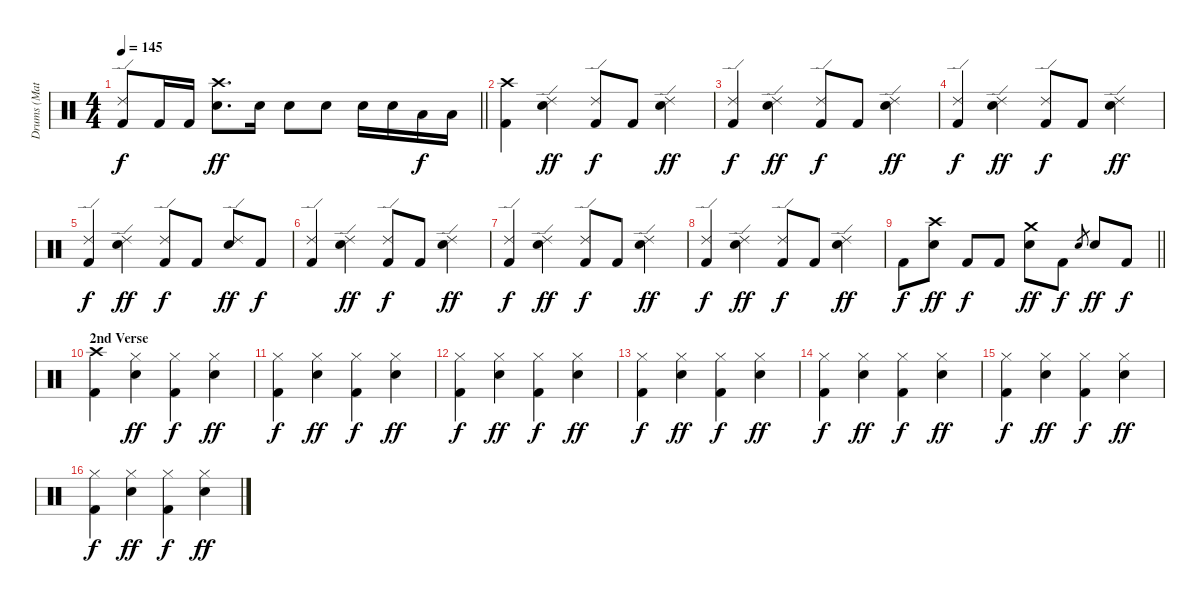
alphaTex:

\track ("Drums (Matt)" "Drums (Mat") {instrument percussion}
\staff {score}
\articulation defaults
\ts (4 4)
\tempo 145
\clef neutral
\barLineRight lightlight
\ks c
("Ride (edge) 2" "Kick (hit) 2").8{dy f} "Kick (hit) 2".16 "Kick (hit) 2".16 ("Crash high (hit)" "Snare (hit) 2").8{d dy ff} "Snare (hit) 2".16 "Snare (hit) 2".8 "Snare (hit) 2".8 "Snare (hit) 2".16 "Snare (hit) 2".16 "Low Tom (hit)".16{dy f} "Low Tom (hit)".16 |
("Crash high (hit)" "Kick (hit) 2").4 ("Ride (edge) 2" "Snare (hit) 2").4{dy ff} ("Ride (edge) 2" "Kick (hit) 2").8{dy f} "Kick (hit) 2".8 ("Ride (edge) 2" "Snare (hit) 2").4{dy ff} |
("Ride (edge) 2" "Kick (hit) 2").4{dy f} ("Ride (edge) 2" "Snare (hit) 2").4{dy ff} ("Ride (edge) 2" "Kick (hit) 2").8{dy f} "Kick (hit) 2".8 ("Ride (edge) 2" "Snare (hit) 2").4{dy ff} |
("Ride (edge) 2" "Kick (hit) 2").4{dy f} ("Ride (edge) 2" "Snare (hit) 2").4{dy ff} ("Ride (edge) 2" "Kick (hit) 2").8{dy f} "Kick (hit) 2".8 ("Ride (edge) 2" "Snare (hit) 2").4{dy ff} |
("Ride (edge) 2" "Kick (hit) 2").4{dy f} ("Ride (edge) 2" "Snare (hit) 2").4{dy ff} ("Ride (edge) 2" "Kick (hit) 2").8{dy f} "Kick (hit) 2".8 ("Ride (edge) 2" "Snare (hit) 2").8{dy ff} "Kick (hit) 2".8{dy f} |
("Ride (edge) 2" "Kick (hit) 2").4 ("Ride (edge) 2" "Snare (hit) 2").4{dy ff} ("Ride (edge) 2" "Kick (hit) 2").8{dy f} "Kick (hit) 2".8 ("Ride (edge) 2" "Snare (hit) 2").4{dy ff} |
("Ride (edge) 2" "Kick (hit) 2").4{dy f} ("Ride (edge) 2" "Snare (hit) 2").4{dy ff} ("Ride (edge) 2" "Kick (hit) 2").8{dy f} "Kick (hit) 2".8 ("Ride (edge) 2" "Snare (hit) 2").4{dy ff} |
("Ride (edge) 2" "Kick (hit) 2").4{dy f} ("Ride (edge) 2" "Snare (hit) 2").4{dy ff} ("Ride (edge) 2" "Kick (hit) 2").8{dy f} "Kick (hit) 2".8 ("Ride (edge) 2" "Snare (hit) 2").4{dy ff} |
\barLineRight lightlight "Kick (hit) 2".8{dy f}
("Crash high (hit)" "Snare (hit) 2").8{dy ff} "Kick (hit) 2".8{dy f} "Kick (hit) 2".8 ("Crash medium (hit)" "Snare (hit) 2").8{dy ff} "Kick (hit) 2".8{dy f} "Snare (hit) 2".8{gr} "Snare (hit) 2".8{dy ff} "Kick (hit) 2".8{dy f} |
\section ("" "2nd Verse")
("Crash high (hit)" "Kick (hit) 2").4 ("Hi-Hat (closed)" "Snare (hit) 2").4{dy ff} ("Hi-Hat (closed)" "Kick (hit) 2").4{dy f} ("Hi-Hat (closed)" "Snare (hit) 2").4{dy ff} |
("Hi-Hat (closed)" "Kick (hit) 2").4{dy f} ("Hi-Hat (closed)" "Snare (hit) 2").4{dy ff} ("Hi-Hat (closed)" "Kick (hit) 2").4{dy f} ("Hi-Hat (closed)" "Snare (hit) 2").4{dy ff} |
("Hi-Hat (closed)" "Kick (hit) 2").4{dy f} ("Hi-Hat (closed)" "Snare (hit) 2").4{dy ff} ("Hi-Hat (closed)" "Kick (hit) 2").4{dy f} ("Hi-Hat (closed)" "Snare (hit) 2").4{dy ff} |
("Hi-Hat (closed)" "Kick (hit) 2").4{dy f} ("Hi-Hat (closed)" "Snare (hit) 2").4{dy ff} ("Hi-Hat (closed)" "Kick (hit) 2").4{dy f} ("Hi-Hat (closed)" "Snare (hit) 2").4{dy ff} |
("Hi-Hat (closed)" "Kick (hit) 2").4{dy f} ("Hi-Hat (closed)" "Snare (hit) 2").4{dy ff} ("Hi-Hat (closed)" "Kick (hit) 2").4{dy f} ("Hi-Hat (closed)" "Snare (hit) 2").4{dy ff} |
("Hi-Hat (closed)" "Kick (hit) 2").4{dy f} ("Hi-Hat (closed)" "Snare (hit) 2").4{dy ff} ("Hi-Hat (closed)" "Kick (hit) 2").4{dy f} ("Hi-Hat (closed)" "Snare (hit) 2").4{dy ff} |
("Hi-Hat (closed)" "Kick (hit) 2").4{dy f} ("Hi-Hat (closed)" "Snare (hit) 2").4{dy ff} ("Hi-Hat (closed)" "Kick (hit) 2").4{dy f} ("Hi-Hat (closed)" "Snare (hit) 2").4{dy ff}
